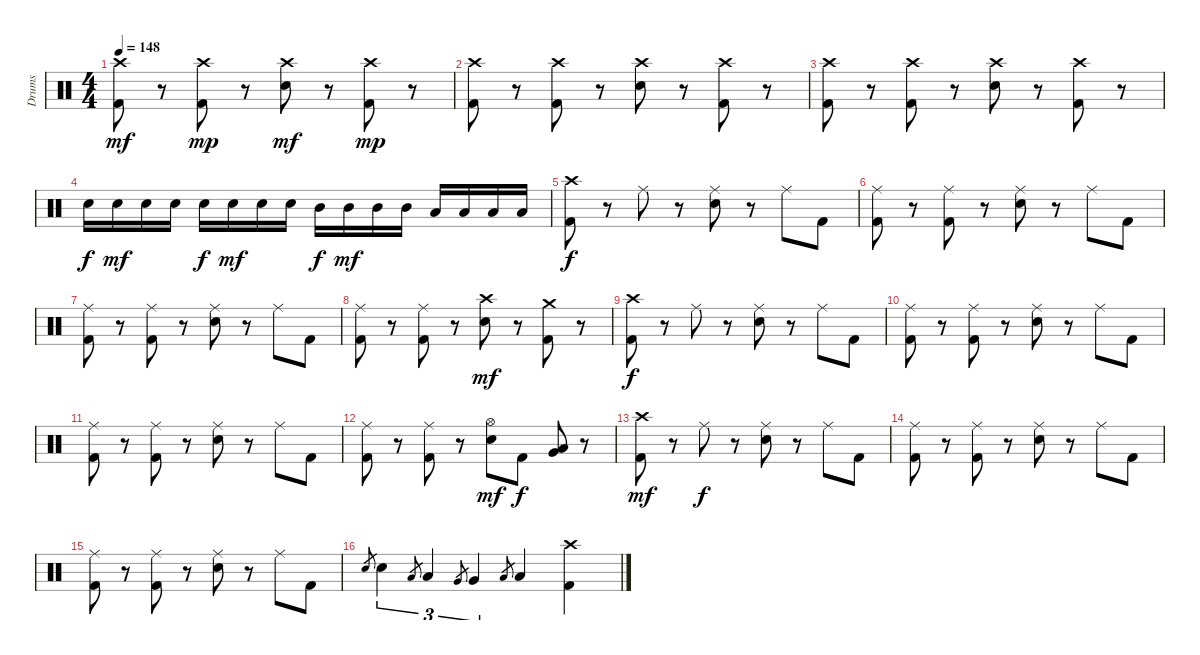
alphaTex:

\track ("Drums" "Drums") {instrument percussion}
\staff {score}
\articulation defaults
\ts (4 4)
\tempo 148
\clef neutral
\ks c
("Crash high (hit)" "Kick (hit) 2").8{dy mf} r.8 ("Crash high (hit)" "Kick (hit) 2").8{dy mp} r.8 ("Crash high (hit)" "Snare (hit) 2").8{dy mf} r.8 ("Crash high (hit)" "Kick (hit) 2").8{dy mp} r.8 |
("Crash high (hit)" "Kick (hit) 2").8 r.8 ("Crash high (hit)" "Kick (hit) 2").8 r.8 ("Crash high (hit)" "Snare (hit) 2").8 r.8 ("Crash high (hit)" "Kick (hit) 2").8 r.8 |
("Crash high (hit)" "Kick (hit) 2").8 r.8 ("Crash high (hit)" "Kick (hit) 2").8 r.8 ("Crash high (hit)" "Snare (hit) 2").8 r.8 ("Crash high (hit)" "Kick (hit) 2").8 r.8 |
"Snare (hit) 2".16{dy f} "Snare (hit) 2".16{dy mf} "Snare (hit) 2".16 "Snare (hit) 2".16 "Snare (hit) 2".16{dy f} "Snare (hit) 2".16{dy mf} "Snare (hit) 2".16 "Snare (hit) 2".16 "Mid Tom (hit)".16{dy f} "Mid Tom (hit)".16{dy mf} "Mid Tom (hit)".16 "Mid Tom (hit)".16 "Low Tom (hit)".16 "Low Tom (hit)".16 "Low Tom (hit)".16 "Low Tom (hit)".16 |
("Crash high (hit)" "Kick (hit) 2").8{dy f} r.8 "Ride (middle)".8 r.8 ("Ride (middle)" "Snare (hit) 2").8 r.8 "Ride (middle)".8 "Kick (hit) 2".8 |
("Ride (middle)" "Kick (hit) 2").8 r.8 ("Ride (middle)" "Kick (hit) 2").8 r.8 ("Ride (middle)" "Snare (hit) 2").8 r.8 "Ride (middle)".8 "Kick (hit) 2".8 |
("Ride (middle)" "Kick (hit) 2").8 r.8 ("Ride (middle)" "Kick (hit) 2").8 r.8 ("Ride (middle)" "Snare (hit) 2").8 r.8 "Ride (middle)".8 "Kick (hit) 2".8 |
("Ride (middle)" "Kick (hit) 2").8 r.8 ("Ride (middle)" "Kick (hit) 2").8 r.8 ("Crash high (hit)" "Snare (hit) 2").8{dy mf} r.8 ("Crash medium (hit)" "Kick (hit) 2").8 r.8 |
("Crash high (hit)" "Kick (hit) 2").8{dy f} r.8 "Ride (middle)".8 r.8 ("Ride (middle)" "Snare (hit) 2").8 r.8 "Ride (middle)".8 "Kick (hit) 2".8 |
("Ride (middle)" "Kick (hit) 2").8 r.8 ("Ride (middle)" "Kick (hit) 2").8 r.8 ("Ride (middle)" "Snare (hit) 2").8 r.8 "Ride (middle)".8 "Kick (hit) 2".8 |
("Ride (middle)" "Kick (hit) 2").8 r.8 ("Ride (middle)" "Kick (hit) 2").8 r.8 ("Ride (middle)" "Snare (hit) 2").8 r.8 "Ride (middle)".8 "Kick (hit) 2".8 |
("Ride (middle)" "Kick (hit) 2").8 r.8 ("Ride (middle)" "Kick (hit) 2").8 r.8 ("Hi-Hat (open)" "Snare (hit) 2").8{dy mf} "Kick (hit) 2".8{dy f} ("Low Tom (hit)" "Very Low Tom (hit)").8 r.8 |
("Crash high (hit)" "Kick (hit) 2").8{dy mf} r.8 "Ride (middle)".8{dy f} r.8 ("Ride (middle)" "Snare (hit) 2").8 r.8 "Ride (middle)".8 "Kick (hit) 2".8 |
("Ride (middle)" "Kick (hit) 2").8 r.8 ("Ride (middle)" "Kick (hit) 2").8 r.8 ("Ride (middle)" "Snare (hit) 2").8 r.8 "Ride (middle)".8 "Kick (hit) 2".8 |
("Ride (middle)" "Kick (hit) 2").8 r.8 ("Ride (middle)" "Kick (hit) 2").8 r.8 ("Ride (middle)" "Snare (hit) 2").8 r.8 "Ride (middle)".8 "Kick (hit) 2".8 |
"Snare (hit) 2".8{gr} "Snare (hit) 2".4{tu (3 2)} "Low Tom (hit)".8{gr} "Low Tom (hit)".4{tu (3 2)} "Very Low Tom (hit)".8{gr} "Very Low Tom (hit)".4{tu (3 2)} "Low Floor Tom (hit)".8{gr} "Low Floor Tom (hit)".4 ("Crash high (hit)" "Kick (hit) 2").4
